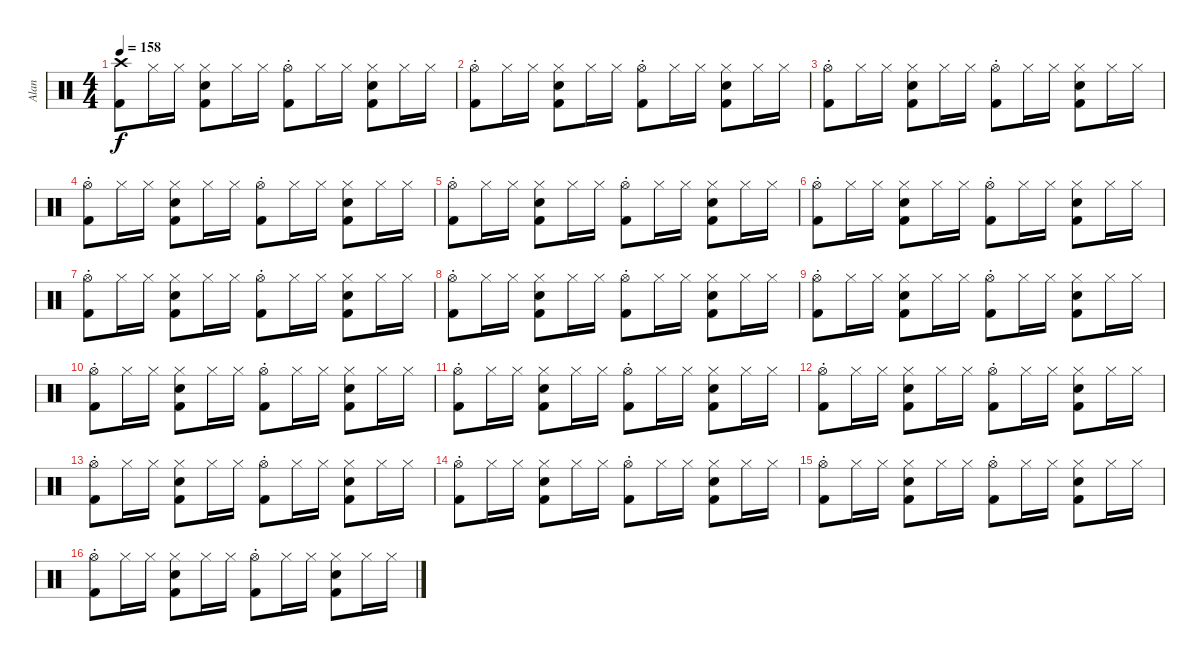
\track ("Alan" "Alan") {instrument percussion}
\staff {score}
\articulation defaults
\ts (4 4)
\tempo 158
\clef neutral
\ks c
("Kick (hit) 2" "Crash high (hit)").8{dy f} "Hi-Hat (closed)".16 "Hi-Hat (closed)".16 ("Hi-Hat (closed)" "Kick (hit) 2" "Snare (hit) 2").8 "Hi-Hat (closed)".16 "Hi-Hat (closed)".16 ("Hi-Hat (open)"{st} "Kick (hit) 2").8 "Hi-Hat (closed)".16 "Hi-Hat (closed)".16 ("Hi-Hat (closed)" "Kick (hit) 2" "Snare (hit) 2").8 "Hi-Hat (closed)".16 "Hi-Hat (closed)".16 |
("Hi-Hat (open)"{st} "Kick (hit) 2").8 "Hi-Hat (closed)".16 "Hi-Hat (closed)".16 ("Hi-Hat (closed)" "Kick (hit) 2" "Snare (hit) 2").8 "Hi-Hat (closed)".16 "Hi-Hat (closed)".16 ("Hi-Hat (open)"{st} "Kick (hit) 2").8 "Hi-Hat (closed)".16 "Hi-Hat (closed)".16 ("Hi-Hat (closed)" "Kick (hit) 2" "Snare (hit) 2").8 "Hi-Hat (closed)".16 "Hi-Hat (closed)".16 |
("Hi-Hat (open)"{st} "Kick (hit) 2").8 "Hi-Hat (closed)".16 "Hi-Hat (closed)".16 ("Hi-Hat (closed)" "Kick (hit) 2" "Snare (hit) 2").8 "Hi-Hat (closed)".16 "Hi-Hat (closed)".16 ("Hi-Hat (open)"{st} "Kick (hit) 2").8 "Hi-Hat (closed)".16 "Hi-Hat (closed)".16 ("Hi-Hat (closed)" "Kick (hit) 2" "Snare (hit) 2").8 "Hi-Hat (closed)".16 "Hi-Hat (closed)".16 |
("Hi-Hat (open)"{st} "Kick (hit) 2").8 "Hi-Hat (closed)".16 "Hi-Hat (closed)".16 ("Hi-Hat (closed)" "Kick (hit) 2" "Snare (hit) 2").8 "Hi-Hat (closed)".16 "Hi-Hat (closed)".16 ("Hi-Hat (open)"{st} "Kick (hit) 2").8 "Hi-Hat (closed)".16 "Hi-Hat (closed)".16 ("Hi-Hat (closed)" "Kick (hit) 2" "Snare (hit) 2").8 "Hi-Hat (closed)".16 "Hi-Hat (closed)".16 |
("Hi-Hat (open)"{st} "Kick (hit) 2").8 "Hi-Hat (closed)".16 "Hi-Hat (closed)".16 ("Hi-Hat (closed)" "Kick (hit) 2" "Snare (hit) 2").8 "Hi-Hat (closed)".16 "Hi-Hat (closed)".16 ("Hi-Hat (open)"{st} "Kick (hit) 2").8 "Hi-Hat (closed)".16 "Hi-Hat (closed)".16 ("Hi-Hat (closed)" "Kick (hit) 2" "Snare (hit) 2").8 "Hi-Hat (closed)".16 "Hi-Hat (closed)".16 |
("Hi-Hat (open)"{st} "Kick (hit) 2").8 "Hi-Hat (closed)".16 "Hi-Hat (closed)".16 ("Hi-Hat (closed)" "Kick (hit) 2" "Snare (hit) 2").8 "Hi-Hat (closed)".16 "Hi-Hat (closed)".16 ("Hi-Hat (open)"{st} "Kick (hit) 2").8 "Hi-Hat (closed)".16 "Hi-Hat (closed)".16 ("Hi-Hat (closed)" "Kick (hit) 2" "Snare (hit) 2").8 "Hi-Hat (closed)".16 "Hi-Hat (closed)".16 |
("Hi-Hat (open)"{st} "Kick (hit) 2").8 "Hi-Hat (closed)".16 "Hi-Hat (closed)".16 ("Hi-Hat (closed)" "Kick (hit) 2" "Snare (hit) 2").8 "Hi-Hat (closed)".16 "Hi-Hat (closed)".16 ("Hi-Hat (open)"{st} "Kick (hit) 2").8 "Hi-Hat (closed)".16 "Hi-Hat (closed)".16 ("Hi-Hat (closed)" "Kick (hit) 2" "Snare (hit) 2").8 "Hi-Hat (closed)".16 "Hi-Hat (closed)".16 |
("Hi-Hat (open)"{st} "Kick (hit) 2").8 "Hi-Hat (closed)".16 "Hi-Hat (closed)".16 ("Hi-Hat (closed)" "Kick (hit) 2" "Snare (hit) 2").8 "Hi-Hat (closed)".16 "Hi-Hat (closed)".16 ("Hi-Hat (open)"{st} "Kick (hit) 2").8 "Hi-Hat (closed)".16 "Hi-Hat (closed)".16 ("Hi-Hat (closed)" "Kick (hit) 2" "Snare (hit) 2").8 "Hi-Hat (closed)".16 "Hi-Hat (closed)".16 |
("Hi-Hat (open)"{st} "Kick (hit) 2").8 "Hi-Hat (closed)".16 "Hi-Hat (closed)".16 ("Hi-Hat (closed)" "Kick (hit) 2" "Snare (hit) 2").8 "Hi-Hat (closed)".16 "Hi-Hat (closed)".16 ("Hi-Hat (open)"{st} "Kick (hit) 2").8 "Hi-Hat (closed)".16 "Hi-Hat (closed)".16 ("Hi-Hat (closed)" "Kick (hit) 2" "Snare (hit) 2").8 "Hi-Hat (closed)".16 "Hi-Hat (closed)".16 |
("Hi-Hat (open)"{st} "Kick (hit) 2").8 "Hi-Hat (closed)".16 "Hi-Hat (closed)".16 ("Hi-Hat (closed)" "Kick (hit) 2" "Snare (hit) 2").8 "Hi-Hat (closed)".16 "Hi-Hat (closed)".16 ("Hi-Hat (open)"{st} "Kick (hit) 2").8 "Hi-Hat (closed)".16 "Hi-Hat (closed)".16 ("Hi-Hat (closed)" "Kick (hit) 2" "Snare (hit) 2").8 "Hi-Hat (closed)".16 "Hi-Hat (closed)".16 |
("Hi-Hat (open)"{st} "Kick (hit) 2").8 "Hi-Hat (closed)".16 "Hi-Hat (closed)".16 ("Hi-Hat (closed)" "Kick (hit) 2" "Snare (hit) 2").8 "Hi-Hat (closed)".16 "Hi-Hat (closed)".16 ("Hi-Hat (open)"{st} "Kick (hit) 2").8 "Hi-Hat (closed)".16 "Hi-Hat (closed)".16 ("Hi-Hat (closed)" "Kick (hit) 2" "Snare (hit) 2").8 "Hi-Hat (closed)".16 "Hi-Hat (closed)".16 |
("Hi-Hat (open)"{st} "Kick (hit) 2").8 "Hi-Hat (closed)".16 "Hi-Hat (closed)".16 ("Hi-Hat (closed)" "Kick (hit) 2" "Snare (hit) 2").8 "Hi-Hat (closed)".16 "Hi-Hat (closed)".16 ("Hi-Hat (open)"{st} "Kick (hit) 2").8 "Hi-Hat (closed)".16 "Hi-Hat (closed)".16 ("Hi-Hat (closed)" "Kick (hit) 2" "Snare (hit) 2").8 "Hi-Hat (closed)".16 "Hi-Hat (closed)".16 |
("Hi-Hat (open)"{st} "Kick (hit) 2").8 "Hi-Hat (closed)".16 "Hi-Hat (closed)".16 ("Hi-Hat (closed)" "Kick (hit) 2" "Snare (hit) 2").8 "Hi-Hat (closed)".16 "Hi-Hat (closed)".16 ("Hi-Hat (open)"{st} "Kick (hit) 2").8 "Hi-Hat (closed)".16 "Hi-Hat (closed)".16 ("Hi-Hat (closed)" "Kick (hit) 2" "Snare (hit) 2").8 "Hi-Hat (closed)".16 "Hi-Hat (closed)".16 |
("Hi-Hat (open)"{st} "Kick (hit) 2").8 "Hi-Hat (closed)".16 "Hi-Hat (closed)".16 ("Hi-Hat (closed)" "Kick (hit) 2" "Snare (hit) 2").8 "Hi-Hat (closed)".16 "Hi-Hat (closed)".16 ("Hi-Hat (open)"{st} "Kick (hit) 2").8 "Hi-Hat (closed)".16 "Hi-Hat (closed)".16 ("Hi-Hat (closed)" "Kick (hit) 2" "Snare (hit) 2").8 "Hi-Hat (closed)".16 "Hi-Hat (closed)".16 |
("Hi-Hat (open)"{st} "Kick (hit) 2").8 "Hi-Hat (closed)".16 "Hi-Hat (closed)".16 ("Hi-Hat (closed)" "Kick (hit) 2" "Snare (hit) 2").8 "Hi-Hat (closed)".16 "Hi-Hat (closed)".16 ("Hi-Hat (open)"{st} "Kick (hit) 2").8 "Hi-Hat (closed)".16 "Hi-Hat (closed)".16 ("Hi-Hat (closed)" "Kick (hit) 2" "Snare (hit) 2").8 "Hi-Hat (closed)".16 "Hi-Hat (closed)".16 |
("Hi-Hat (open)"{st} "Kick (hit) 2").8 "Hi-Hat (closed)".16 "Hi-Hat (closed)".16 ("Hi-Hat (closed)" "Kick (hit) 2" "Snare (hit) 2").8 "Hi-Hat (closed)".16 "Hi-Hat (closed)".16 ("Hi-Hat (open)"{st} "Kick (hit) 2").8 "Hi-Hat (closed)".16 "Hi-Hat (closed)".16 ("Hi-Hat (closed)" "Kick (hit) 2" "Snare (hit) 2").8 "Hi-Hat (closed)".16 "Hi-Hat (closed)".16
